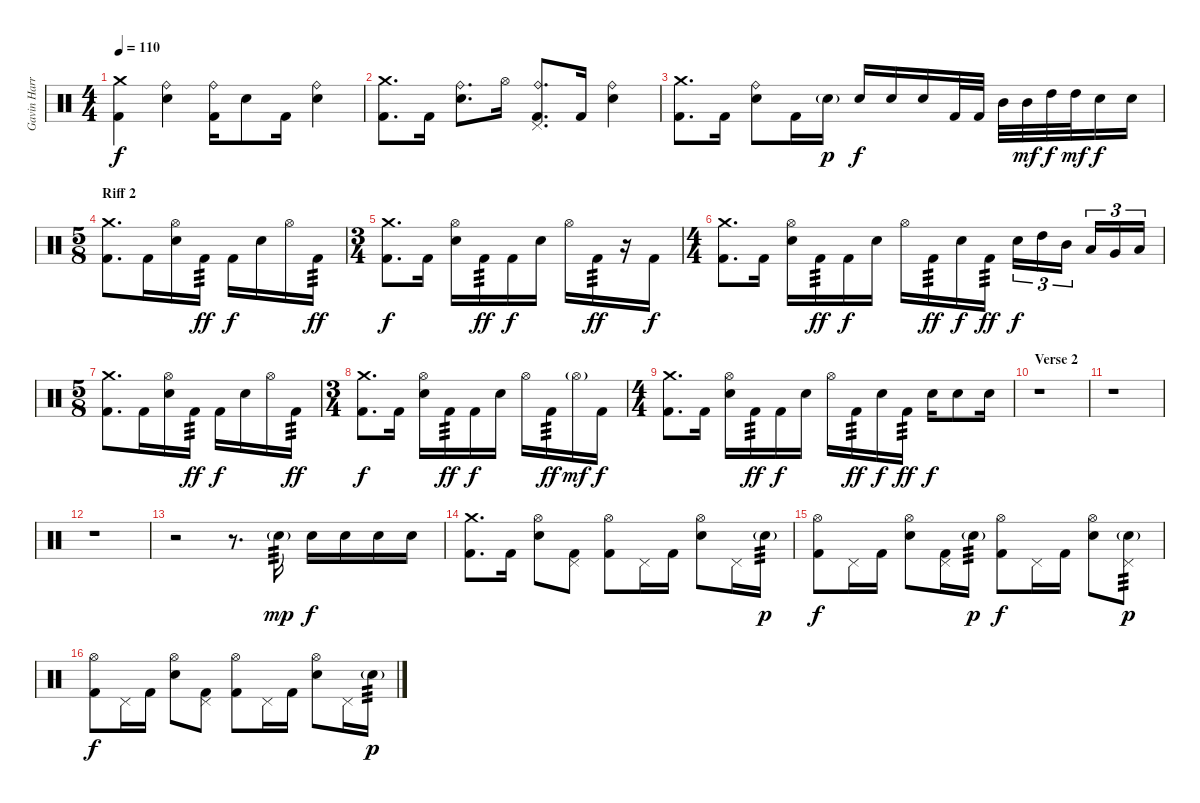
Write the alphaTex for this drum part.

\track ("Gavin Harrison - Drums" "Gavin Harr") {instrument percussion}
\staff {score}
\articulation defaults
\ts (4 4)
\tempo 110
\clef neutral
\ks c
("Crash medium (hit)" "Kick (hit) 2").4{dy f} ("Ride (bell)" "Electric Snare (hit)").4 ("Ride (bell)" "Kick (hit) 2").16 "Electric Snare (hit)".8 "Kick (hit) 2".16 ("Ride (bell)" "Electric Snare (hit)").4 |
("Crash medium (hit)" "Kick (hit) 2").8{d} "Kick (hit) 2".16 ("Ride (bell)" "Electric Snare (hit)").8{d} "Hi-Hat (open)".16 ("Ride (bell)" "Pedal Hi-Hat (hit)" "Kick (hit) 2").8{d} "Kick (hit) 2".16 ("Ride (bell)" "Electric Snare (hit)").4 |
("Crash medium (hit)" "Kick (hit) 2").8{d} "Kick (hit) 2".16 ("Ride (bell)" "Electric Snare (hit)").8 "Kick (hit) 2".16 "Electric Snare (hit)"{g}.16{dy p} "Electric Snare (hit)".16{dy f} "Electric Snare (hit)".16 "Electric Snare (hit)".16 "Kick (hit) 2".32 "Kick (hit) 2".32 "Mid Tom (hit)".32 "Mid Tom (hit)".32{dy mf} "High Tom (hit)".32{dy f} "High Tom (hit)".32{dy mf} "Electric Snare (hit)".16{dy f} "Electric Snare (hit)".16 |
\ts (5 8)
\section ("" "Riff 2")
("Crash medium (hit)" "Kick (hit) 2").8{d} "Kick (hit) 2".16 ("Hi-Hat (open)" "Electric Snare (hit)").16 "Kick (hit) 2".16{tp 3 dy ff} "Kick (hit) 2".16{dy f} "Electric Snare (hit)".16 "Hi-Hat (open)".16 "Kick (hit) 2".16{tp 3 dy ff} |
\ts (3 4)
("Crash medium (hit)" "Kick (hit) 2").8{d dy f} "Kick (hit) 2".16 ("Hi-Hat (open)" "Electric Snare (hit)").16 "Kick (hit) 2".16{tp 3 dy ff} "Kick (hit) 2".16{dy f} "Electric Snare (hit)".16 "Hi-Hat (open)".16 "Kick (hit) 2".16{tp 3 dy ff} r.16 "Kick (hit) 2".16{dy f} |
\ts (4 4)
("Crash medium (hit)" "Kick (hit) 2").8{d} "Kick (hit) 2".16 ("Hi-Hat (open)" "Electric Snare (hit)").16 "Kick (hit) 2".16{tp 3 dy ff} "Kick (hit) 2".16{dy f} "Electric Snare (hit)".16 "Hi-Hat (open)".16 "Kick (hit) 2".16{tp 3 dy ff} "Electric Snare (hit)".16{dy f} "Kick (hit) 2".16{tp 3 dy ff} "Electric Snare (hit)".16{tu (3 2) dy f} "High Tom (hit)".16{tu (3 2)} "Mid Tom (hit)".16{tu (3 2)} "Low Tom (hit)".16{tu (3 2)} "Very Low Tom (hit)".16{tu (3 2)} "Low Floor Tom (hit)".16{tu (3 2)} |
\ts (5 8)
("Crash medium (hit)" "Kick (hit) 2").8{d} "Kick (hit) 2".16 ("Hi-Hat (open)" "Electric Snare (hit)").16 "Kick (hit) 2".16{tp 3 dy ff} "Kick (hit) 2".16{dy f} "Electric Snare (hit)".16 "Hi-Hat (open)".16 "Kick (hit) 2".16{tp 3 dy ff} |
\ts (3 4)
("Crash medium (hit)" "Kick (hit) 2").8{d dy f} "Kick (hit) 2".16 ("Hi-Hat (open)" "Electric Snare (hit)").16 "Kick (hit) 2".16{tp 3 dy ff} "Kick (hit) 2".16{dy f} "Electric Snare (hit)".16 "Hi-Hat (open)".16 "Kick (hit) 2".16{tp 3 dy ff} "Hi-Hat (open)"{g}.16{dy mf} "Kick (hit) 2".16{dy f} |
\ts (4 4)
("Crash medium (hit)" "Kick (hit) 2").8{d} "Kick (hit) 2".16 ("Hi-Hat (open)" "Electric Snare (hit)").16 "Kick (hit) 2".16{tp 3 dy ff} "Kick (hit) 2".16{dy f} "Electric Snare (hit)".16 "Hi-Hat (open)".16 "Kick (hit) 2".16{tp 3 dy ff} "Electric Snare (hit)".16{dy f} "Kick (hit) 2".16{tp 3 dy ff} "Electric Snare (hit)".16{dy f} "Electric Snare (hit)".8 "Electric Snare (hit)".16 |
\section ("" "Verse 2")
r.1 |
r.1 |
r.1 |
r.2 r.8{d} "Electric Snare (hit)"{g}.16{tp 3 dy mp} "Electric Snare (hit)".16{dy f} "Electric Snare (hit)".16 "Electric Snare (hit)".16 "Electric Snare (hit)".16 |
("Crash medium (hit)" "Kick (hit) 2").8{d} "Kick (hit) 2".16 ("Hi-Hat (open)" "Electric Snare (hit)").8 ("Pedal Hi-Hat (hit)" "Kick (hit) 2").8 ("Hi-Hat (open)" "Kick (hit) 2").8 "Pedal Hi-Hat (hit)".16 "Kick (hit) 2".16 ("Hi-Hat (open)" "Electric Snare (hit)").8 "Pedal Hi-Hat (hit)".16 "Electric Snare (hit)"{g}.16{tp 3 dy p} |
("Hi-Hat (open)" "Kick (hit) 2").8{dy f} "Pedal Hi-Hat (hit)".16 "Kick (hit) 2".16 ("Hi-Hat (open)" "Electric Snare (hit)").8 ("Pedal Hi-Hat (hit)" "Kick (hit) 2").16 "Electric Snare (hit)"{g}.16{tp 3 dy p} ("Hi-Hat (open)" "Kick (hit) 2").8{dy f} "Pedal Hi-Hat (hit)".16 "Kick (hit) 2".16 ("Hi-Hat (open)" "Electric Snare (hit)").8 ("Pedal Hi-Hat (hit)" "Electric Snare (hit)"{g}).8{tp 3 dy p} |
("Hi-Hat (open)" "Kick (hit) 2").8{dy f} "Pedal Hi-Hat (hit)".16 "Kick (hit) 2".16 ("Hi-Hat (open)" "Electric Snare (hit)").8 ("Pedal Hi-Hat (hit)" "Kick (hit) 2").8 ("Hi-Hat (open)" "Kick (hit) 2").8 "Pedal Hi-Hat (hit)".16 "Kick (hit) 2".16 ("Hi-Hat (open)" "Electric Snare (hit)").8 "Pedal Hi-Hat (hit)".16 "Electric Snare (hit)"{g}.16{tp 3 dy p}
